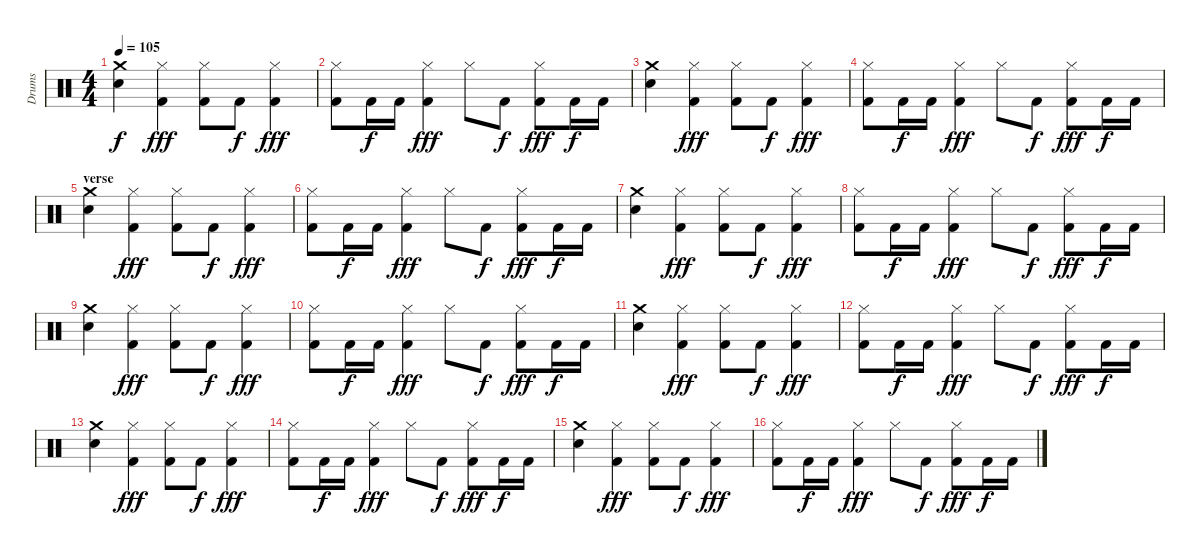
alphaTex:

\track ("Drums" "Drums") {instrument percussion}
\staff {score}
\articulation defaults
\ts (4 4)
\tempo 105
\clef neutral
\ks c
("Crash medium (hit)" "Electric Snare (hit)").4{dy f} ("Hi-Hat (closed)" "Kick (hit) 2").4{dy fff} ("Hi-Hat (closed)" "Kick (hit) 2").8 "Kick (hit) 2".8{dy f} ("Hi-Hat (closed)" "Kick (hit) 2").4{dy fff} |
("Hi-Hat (closed)" "Kick (hit) 2").8 "Kick (hit) 2".16{dy f} "Kick (hit) 2".16 ("Hi-Hat (closed)" "Kick (hit) 2").4{dy fff} "Hi-Hat (closed)".8 "Kick (hit) 2".8{dy f} ("Hi-Hat (closed)" "Kick (hit) 2").8{dy fff} "Kick (hit) 2".16{dy f} "Kick (hit) 2".16 |
("Crash medium (hit)" "Electric Snare (hit)").4 ("Hi-Hat (closed)" "Kick (hit) 2").4{dy fff} ("Hi-Hat (closed)" "Kick (hit) 2").8 "Kick (hit) 2".8{dy f} ("Hi-Hat (closed)" "Kick (hit) 2").4{dy fff} |
("Hi-Hat (closed)" "Kick (hit) 2").8 "Kick (hit) 2".16{dy f} "Kick (hit) 2".16 ("Hi-Hat (closed)" "Kick (hit) 2").4{dy fff} "Hi-Hat (closed)".8 "Kick (hit) 2".8{dy f} ("Hi-Hat (closed)" "Kick (hit) 2").8{dy fff} "Kick (hit) 2".16{dy f} "Kick (hit) 2".16 |
\section ("" "verse")
("Crash medium (hit)" "Electric Snare (hit)").4 ("Hi-Hat (closed)" "Kick (hit) 2").4{dy fff} ("Hi-Hat (closed)" "Kick (hit) 2").8 "Kick (hit) 2".8{dy f} ("Hi-Hat (closed)" "Kick (hit) 2").4{dy fff} |
("Hi-Hat (closed)" "Kick (hit) 2").8 "Kick (hit) 2".16{dy f} "Kick (hit) 2".16 ("Hi-Hat (closed)" "Kick (hit) 2").4{dy fff} "Hi-Hat (closed)".8 "Kick (hit) 2".8{dy f} ("Hi-Hat (closed)" "Kick (hit) 2").8{dy fff} "Kick (hit) 2".16{dy f} "Kick (hit) 2".16 |
("Crash medium (hit)" "Electric Snare (hit)").4 ("Hi-Hat (closed)" "Kick (hit) 2").4{dy fff} ("Hi-Hat (closed)" "Kick (hit) 2").8 "Kick (hit) 2".8{dy f} ("Hi-Hat (closed)" "Kick (hit) 2").4{dy fff} |
("Hi-Hat (closed)" "Kick (hit) 2").8 "Kick (hit) 2".16{dy f} "Kick (hit) 2".16 ("Hi-Hat (closed)" "Kick (hit) 2").4{dy fff} "Hi-Hat (closed)".8 "Kick (hit) 2".8{dy f} ("Hi-Hat (closed)" "Kick (hit) 2").8{dy fff} "Kick (hit) 2".16{dy f} "Kick (hit) 2".16 |
("Crash medium (hit)" "Electric Snare (hit)").4 ("Hi-Hat (closed)" "Kick (hit) 2").4{dy fff} ("Hi-Hat (closed)" "Kick (hit) 2").8 "Kick (hit) 2".8{dy f} ("Hi-Hat (closed)" "Kick (hit) 2").4{dy fff} |
("Hi-Hat (closed)" "Kick (hit) 2").8 "Kick (hit) 2".16{dy f} "Kick (hit) 2".16 ("Hi-Hat (closed)" "Kick (hit) 2").4{dy fff} "Hi-Hat (closed)".8 "Kick (hit) 2".8{dy f} ("Hi-Hat (closed)" "Kick (hit) 2").8{dy fff} "Kick (hit) 2".16{dy f} "Kick (hit) 2".16 |
("Crash medium (hit)" "Electric Snare (hit)").4 ("Hi-Hat (closed)" "Kick (hit) 2").4{dy fff} ("Hi-Hat (closed)" "Kick (hit) 2").8 "Kick (hit) 2".8{dy f} ("Hi-Hat (closed)" "Kick (hit) 2").4{dy fff} |
("Hi-Hat (closed)" "Kick (hit) 2").8 "Kick (hit) 2".16{dy f} "Kick (hit) 2".16 ("Hi-Hat (closed)" "Kick (hit) 2").4{dy fff} "Hi-Hat (closed)".8 "Kick (hit) 2".8{dy f} ("Hi-Hat (closed)" "Kick (hit) 2").8{dy fff} "Kick (hit) 2".16{dy f} "Kick (hit) 2".16 |
("Crash medium (hit)" "Electric Snare (hit)").4 ("Hi-Hat (closed)" "Kick (hit) 2").4{dy fff} ("Hi-Hat (closed)" "Kick (hit) 2").8 "Kick (hit) 2".8{dy f} ("Hi-Hat (closed)" "Kick (hit) 2").4{dy fff} |
("Hi-Hat (closed)" "Kick (hit) 2").8 "Kick (hit) 2".16{dy f} "Kick (hit) 2".16 ("Hi-Hat (closed)" "Kick (hit) 2").4{dy fff} "Hi-Hat (closed)".8 "Kick (hit) 2".8{dy f} ("Hi-Hat (closed)" "Kick (hit) 2").8{dy fff} "Kick (hit) 2".16{dy f} "Kick (hit) 2".16 |
("Crash medium (hit)" "Electric Snare (hit)").4 ("Hi-Hat (closed)" "Kick (hit) 2").4{dy fff} ("Hi-Hat (closed)" "Kick (hit) 2").8 "Kick (hit) 2".8{dy f} ("Hi-Hat (closed)" "Kick (hit) 2").4{dy fff} |
("Hi-Hat (closed)" "Kick (hit) 2").8 "Kick (hit) 2".16{dy f} "Kick (hit) 2".16 ("Hi-Hat (closed)" "Kick (hit) 2").4{dy fff} "Hi-Hat (closed)".8 "Kick (hit) 2".8{dy f} ("Hi-Hat (closed)" "Kick (hit) 2").8{dy fff} "Kick (hit) 2".16{dy f} "Kick (hit) 2".16
